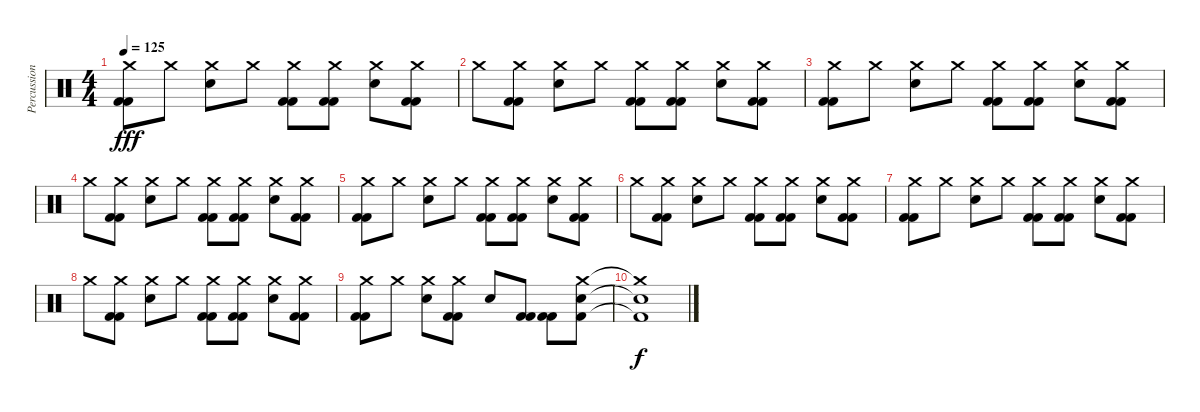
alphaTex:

\track ("Percussion" "Percussion") {instrument percussion}
\staff {score}
\articulation defaults
\ts (4 4)
\tempo 125
\clef neutral
\ks c
("Crash medium (hit)" "Kick (hit) 2" "Kick (hit) 2").8{dy fff} "Crash medium (hit)".8 ("Crash medium (hit)" "Snare (hit) 2").8 "Crash medium (hit)".8 ("Crash medium (hit)" "Kick (hit) 2" "Kick (hit) 2").8 ("Crash medium (hit)" "Kick (hit) 2" "Kick (hit) 2").8 ("Crash medium (hit)" "Snare (hit) 2").8 ("Crash medium (hit)" "Kick (hit) 2" "Kick (hit) 2").8 |
"Crash medium (hit)".8 ("Crash medium (hit)" "Kick (hit) 2" "Kick (hit) 2").8 ("Crash medium (hit)" "Snare (hit) 2").8 "Crash medium (hit)".8 ("Crash medium (hit)" "Kick (hit) 2" "Kick (hit) 2").8 ("Crash medium (hit)" "Kick (hit) 2" "Kick (hit) 2").8 ("Crash medium (hit)" "Snare (hit) 2").8 ("Crash medium (hit)" "Kick (hit) 2" "Kick (hit) 2").8 |
("Crash medium (hit)" "Kick (hit) 2" "Kick (hit) 2").8 "Crash medium (hit)".8 ("Crash medium (hit)" "Snare (hit) 2").8 "Crash medium (hit)".8 ("Crash medium (hit)" "Kick (hit) 2" "Kick (hit) 2").8 ("Crash medium (hit)" "Kick (hit) 2" "Kick (hit) 2").8 ("Crash medium (hit)" "Snare (hit) 2").8 ("Crash medium (hit)" "Kick (hit) 2" "Kick (hit) 2").8 |
"Crash medium (hit)".8 ("Crash medium (hit)" "Kick (hit) 2" "Kick (hit) 2").8 ("Crash medium (hit)" "Snare (hit) 2").8 "Crash medium (hit)".8 ("Crash medium (hit)" "Kick (hit) 2" "Kick (hit) 2").8 ("Crash medium (hit)" "Kick (hit) 2" "Kick (hit) 2").8 ("Crash medium (hit)" "Snare (hit) 2").8 ("Crash medium (hit)" "Kick (hit) 2" "Kick (hit) 2").8 |
("Crash medium (hit)" "Kick (hit) 2" "Kick (hit) 2").8 "Crash medium (hit)".8 ("Crash medium (hit)" "Snare (hit) 2").8 "Crash medium (hit)".8 ("Crash medium (hit)" "Kick (hit) 2" "Kick (hit) 2").8 ("Crash medium (hit)" "Kick (hit) 2" "Kick (hit) 2").8 ("Crash medium (hit)" "Snare (hit) 2").8 ("Crash medium (hit)" "Kick (hit) 2" "Kick (hit) 2").8 |
"Crash medium (hit)".8 ("Crash medium (hit)" "Kick (hit) 2" "Kick (hit) 2").8 ("Crash medium (hit)" "Snare (hit) 2").8 "Crash medium (hit)".8 ("Crash medium (hit)" "Kick (hit) 2" "Kick (hit) 2").8 ("Crash medium (hit)" "Kick (hit) 2" "Kick (hit) 2").8 ("Crash medium (hit)" "Snare (hit) 2").8 ("Crash medium (hit)" "Kick (hit) 2" "Kick (hit) 2").8 |
("Crash medium (hit)" "Kick (hit) 2" "Kick (hit) 2").8 "Crash medium (hit)".8 ("Crash medium (hit)" "Snare (hit) 2").8 "Crash medium (hit)".8 ("Crash medium (hit)" "Kick (hit) 2" "Kick (hit) 2").8 ("Crash medium (hit)" "Kick (hit) 2" "Kick (hit) 2").8 ("Crash medium (hit)" "Snare (hit) 2").8 ("Crash medium (hit)" "Kick (hit) 2" "Kick (hit) 2").8 |
"Crash medium (hit)".8 ("Crash medium (hit)" "Kick (hit) 2" "Kick (hit) 2").8 ("Crash medium (hit)" "Snare (hit) 2").8 "Crash medium (hit)".8 ("Crash medium (hit)" "Kick (hit) 2" "Kick (hit) 2").8 ("Crash medium (hit)" "Kick (hit) 2" "Kick (hit) 2").8 ("Crash medium (hit)" "Snare (hit) 2").8 ("Crash medium (hit)" "Kick (hit) 2" "Kick (hit) 2").8 |
("Crash medium (hit)" "Kick (hit) 2" "Kick (hit) 2").8 "Crash medium (hit)".8 ("Crash medium (hit)" "Snare (hit) 2").8 ("Crash medium (hit)" "Kick (hit) 2" "Kick (hit) 2").8 "Snare (hit) 2".8 ("Kick (hit) 2" "Kick (hit) 2").8 ("Kick (hit) 2" "Kick (hit) 2").8 ("Crash medium (hit)" "Snare (hit) 2" "Kick (hit) 2").8 |
("Crash medium (hit)"{t} "Snare (hit) 2"{t} "Kick (hit) 2"{t}).1{dy f}
